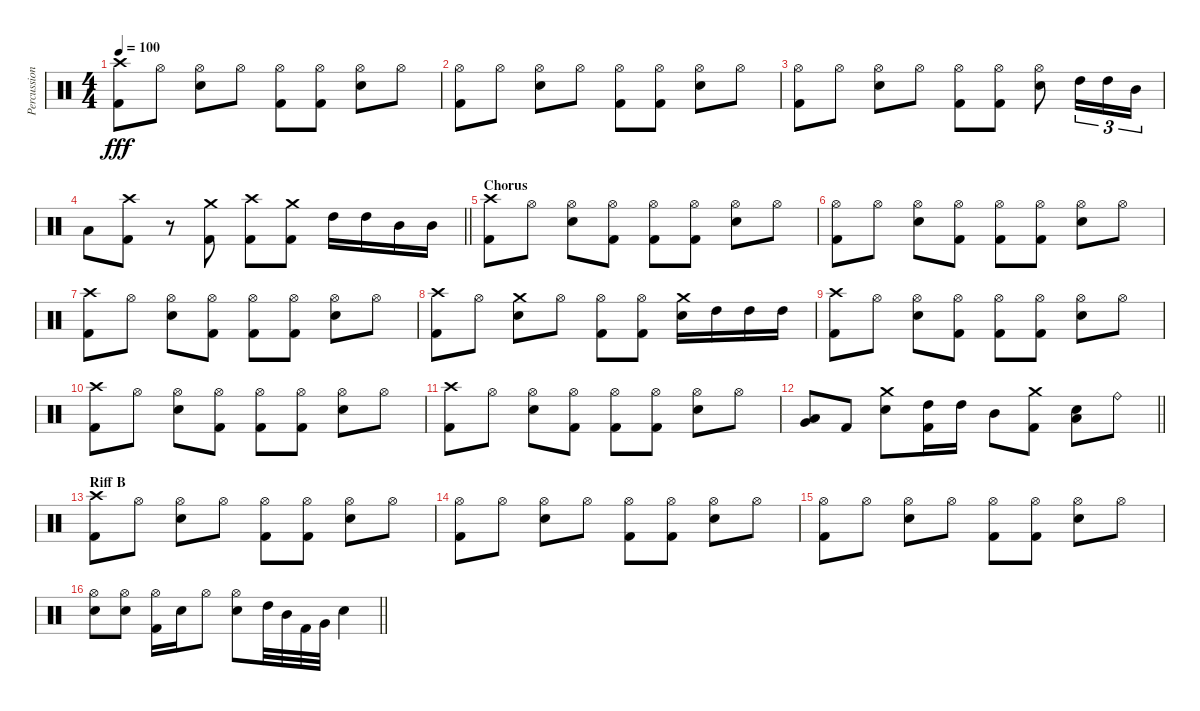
\track ("Percussion" "Percussion") {instrument percussion}
\staff {score}
\articulation defaults
\ts (4 4)
\tempo 100
\clef neutral
\ks c
("Crash high (hit)" "Kick (hit) 2").8{dy fff} "Hi-Hat (open)".8 ("Hi-Hat (open)" "Electric Snare (hit)").8 "Hi-Hat (open)".8 ("Hi-Hat (open)" "Kick (hit) 2").8 ("Hi-Hat (open)" "Kick (hit) 2").8 ("Hi-Hat (open)" "Electric Snare (hit)").8 "Hi-Hat (open)".8 |
("Hi-Hat (open)" "Kick (hit) 2").8 "Hi-Hat (open)".8 ("Hi-Hat (open)" "Electric Snare (hit)").8 "Hi-Hat (open)".8 ("Hi-Hat (open)" "Kick (hit) 2").8 ("Hi-Hat (open)" "Kick (hit) 2").8 ("Hi-Hat (open)" "Electric Snare (hit)").8 "Hi-Hat (open)".8 |
("Hi-Hat (open)" "Kick (hit) 2").8 "Hi-Hat (open)".8 ("Hi-Hat (open)" "Electric Snare (hit)").8 "Hi-Hat (open)".8 ("Hi-Hat (open)" "Kick (hit) 2").8 ("Hi-Hat (open)" "Kick (hit) 2").8 ("Hi-Hat (open)" "Electric Snare (hit)").8 "High Tom (hit)".16{tu (3 2)} "High Tom (hit)".16{tu (3 2)} "Mid Tom (hit)".16{tu (3 2)} |
\barLineRight lightlight "Low Tom (hit)".8
("Crash high (hit)" "Kick (hit) 2").8 r.8 ("Crash medium (hit)" "Kick (hit) 2").8 ("Crash high (hit)" "Kick (hit) 2").8 ("Crash medium (hit)" "Kick (hit) 2").8 "High Tom (hit)".16 "High Tom (hit)".16 "Mid Tom (hit)".16 "Mid Tom (hit)".16 |
\section ("" "Chorus")
("Crash high (hit)" "Kick (hit) 2").8 "Hi-Hat (open)".8 ("Hi-Hat (open)" "Electric Snare (hit)").8 ("Hi-Hat (open)" "Kick (hit) 2").8 ("Hi-Hat (open)" "Kick (hit) 2").8 ("Hi-Hat (open)" "Kick (hit) 2").8 ("Hi-Hat (open)" "Electric Snare (hit)").8 "Hi-Hat (open)".8 |
("Hi-Hat (open)" "Kick (hit) 2").8 "Hi-Hat (open)".8 ("Hi-Hat (open)" "Electric Snare (hit)").8 ("Hi-Hat (open)" "Kick (hit) 2").8 ("Hi-Hat (open)" "Kick (hit) 2").8 ("Hi-Hat (open)" "Kick (hit) 2").8 ("Hi-Hat (open)" "Electric Snare (hit)").8 "Hi-Hat (open)".8 |
("Crash high (hit)" "Kick (hit) 2").8 "Hi-Hat (open)".8 ("Hi-Hat (open)" "Electric Snare (hit)").8 ("Hi-Hat (open)" "Kick (hit) 2").8 ("Hi-Hat (open)" "Kick (hit) 2").8 ("Hi-Hat (open)" "Kick (hit) 2").8 ("Hi-Hat (open)" "Electric Snare (hit)").8 "Hi-Hat (open)".8 |
("Crash high (hit)" "Kick (hit) 2").8 "Hi-Hat (open)".8 ("Crash medium (hit)" "Electric Snare (hit)").8 "Hi-Hat (open)".8 ("Hi-Hat (open)" "Kick (hit) 2").8 ("Hi-Hat (open)" "Kick (hit) 2").8 ("Crash medium (hit)" "Electric Snare (hit)").16 "High Tom (hit)".16 "High Tom (hit)".16 "High Tom (hit)".16 |
("Crash high (hit)" "Kick (hit) 2").8 "Hi-Hat (open)".8 ("Hi-Hat (open)" "Electric Snare (hit)").8 ("Hi-Hat (open)" "Kick (hit) 2").8 ("Hi-Hat (open)" "Kick (hit) 2").8 ("Hi-Hat (open)" "Kick (hit) 2").8 ("Hi-Hat (open)" "Electric Snare (hit)").8 "Hi-Hat (open)".8 |
("Crash high (hit)" "Kick (hit) 2").8 "Hi-Hat (open)".8 ("Hi-Hat (open)" "Electric Snare (hit)").8 ("Hi-Hat (open)" "Kick (hit) 2").8 ("Hi-Hat (open)" "Kick (hit) 2").8 ("Hi-Hat (open)" "Kick (hit) 2").8 ("Hi-Hat (open)" "Electric Snare (hit)").8 "Hi-Hat (open)".8 |
("Crash high (hit)" "Kick (hit) 2").8 "Hi-Hat (open)".8 ("Hi-Hat (open)" "Electric Snare (hit)").8 ("Hi-Hat (open)" "Kick (hit) 2").8 ("Hi-Hat (open)" "Kick (hit) 2").8 ("Hi-Hat (open)" "Kick (hit) 2").8 ("Hi-Hat (open)" "Electric Snare (hit)").8 "Hi-Hat (open)".8 |
\barLineRight lightlight
("Low Tom (hit)" "Very Low Tom (hit)").8 "Kick (hit) 2".8 ("Crash medium (hit)" "Electric Snare (hit)").8 ("High Tom (hit)" "Kick (hit) 2").16 "High Tom (hit)".16 "Mid Tom (hit)".8 ("Crash medium (hit)" "Kick (hit) 2").8 ("Low Tom (hit)" "Electric Snare (hit)").8 "Ride (bell)".8 |
\section ("" "Riff B")
("Crash high (hit)" "Kick (hit) 2").8 "Hi-Hat (open)".8 ("Hi-Hat (open)" "Electric Snare (hit)").8 "Hi-Hat (open)".8 ("Hi-Hat (open)" "Kick (hit) 2").8 ("Hi-Hat (open)" "Kick (hit) 2").8 ("Hi-Hat (open)" "Electric Snare (hit)").8 "Hi-Hat (open)".8 |
("Hi-Hat (open)" "Kick (hit) 2").8 "Hi-Hat (open)".8 ("Hi-Hat (open)" "Electric Snare (hit)").8 "Hi-Hat (open)".8 ("Hi-Hat (open)" "Kick (hit) 2").8 ("Hi-Hat (open)" "Kick (hit) 2").8 ("Hi-Hat (open)" "Electric Snare (hit)").8 "Hi-Hat (open)".8 |
("Hi-Hat (open)" "Kick (hit) 2").8 "Hi-Hat (open)".8 ("Hi-Hat (open)" "Electric Snare (hit)").8 "Hi-Hat (open)".8 ("Hi-Hat (open)" "Kick (hit) 2").8 ("Hi-Hat (open)" "Kick (hit) 2").8 ("Hi-Hat (open)" "Electric Snare (hit)").8 "Hi-Hat (open)".8 |
\barLineRight lightlight
("Hi-Hat (open)" "Electric Snare (hit)").8 ("Hi-Hat (open)" "Electric Snare (hit)").8 ("Hi-Hat (open)" "Kick (hit) 2").16 "Electric Snare (hit)".16 "Hi-Hat (open)".8 ("Hi-Hat (open)" "Electric Snare (hit)").8 "High Tom (hit)".32 "Mid Tom (hit)".32 "Kick (hit) 2".32 "Very Low Tom (hit)".32 "Electric Snare (hit)".4
